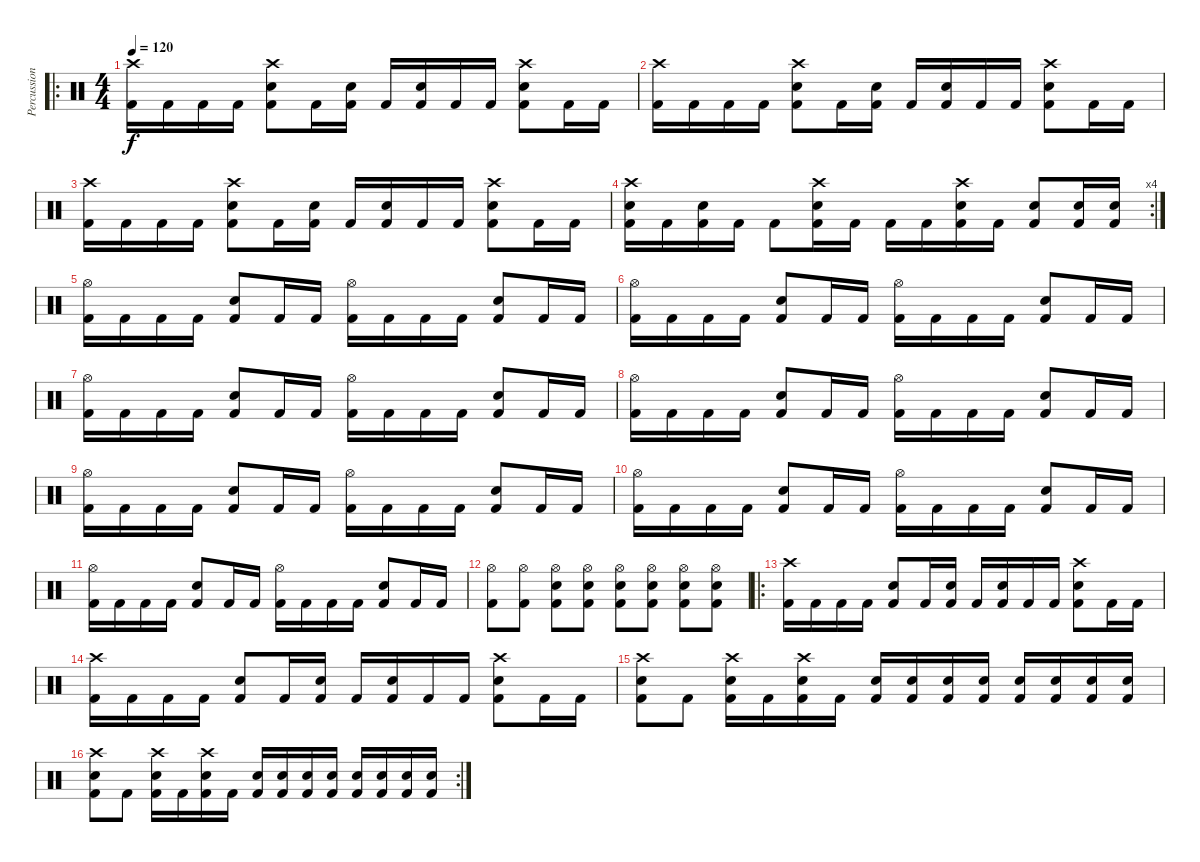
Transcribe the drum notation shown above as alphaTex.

\track ("Percussion - Ryan Vikedal" "Percussion") {instrument percussion}
\staff {score}
\articulation defaults
\ro
\ts (4 4)
\tempo 120
\clef neutral
\ks c
("Crash high (hit)" "Kick (hit) 2").16{dy f} "Kick (hit) 2".16 "Kick (hit) 2".16 "Kick (hit) 2".16 ("Crash high (hit)" "Snare (hit) 2" "Kick (hit) 2").8 "Kick (hit) 2".16 ("Snare (hit) 2" "Kick (hit) 2").16 "Kick (hit) 2".16 ("Snare (hit) 2" "Kick (hit) 2").16 "Kick (hit) 2".16 "Kick (hit) 2".16 ("Crash high (hit)" "Snare (hit) 2" "Kick (hit) 2").8 "Kick (hit) 2".16 "Kick (hit) 2".16 |
("Crash high (hit)" "Kick (hit) 2").16 "Kick (hit) 2".16 "Kick (hit) 2".16 "Kick (hit) 2".16 ("Crash high (hit)" "Snare (hit) 2" "Kick (hit) 2").8 "Kick (hit) 2".16 ("Snare (hit) 2" "Kick (hit) 2").16 "Kick (hit) 2".16 ("Snare (hit) 2" "Kick (hit) 2").16 "Kick (hit) 2".16 "Kick (hit) 2".16 ("Crash high (hit)" "Snare (hit) 2" "Kick (hit) 2").8 "Kick (hit) 2".16 "Kick (hit) 2".16 |
("Crash high (hit)" "Kick (hit) 2").16 "Kick (hit) 2".16 "Kick (hit) 2".16 "Kick (hit) 2".16 ("Crash high (hit)" "Snare (hit) 2" "Kick (hit) 2").8 "Kick (hit) 2".16 ("Snare (hit) 2" "Kick (hit) 2").16 "Kick (hit) 2".16 ("Snare (hit) 2" "Kick (hit) 2").16 "Kick (hit) 2".16 "Kick (hit) 2".16 ("Crash high (hit)" "Snare (hit) 2" "Kick (hit) 2").8 "Kick (hit) 2".16 "Kick (hit) 2".16 |
\rc 4
("Crash high (hit)" "Snare (hit) 2" "Kick (hit) 2").16 "Kick (hit) 2".16 ("Snare (hit) 2" "Kick (hit) 2").16 "Kick (hit) 2".16 "Kick (hit) 2".8 ("Crash high (hit)" "Snare (hit) 2" "Kick (hit) 2").16 "Kick (hit) 2".16 "Kick (hit) 2".16 "Kick (hit) 2".16 ("Crash high (hit)" "Snare (hit) 2" "Kick (hit) 2").16 "Kick (hit) 2".16 ("Snare (hit) 2" "Kick (hit) 2").8 ("Snare (hit) 2" "Kick (hit) 2").16 ("Snare (hit) 2" "Kick (hit) 2").16 |
("Hi-Hat (open)" "Kick (hit) 2").16 "Kick (hit) 2".16 "Kick (hit) 2".16 "Kick (hit) 2".16 ("Snare (hit) 2" "Kick (hit) 2").8 "Kick (hit) 2".16 "Kick (hit) 2".16 ("Hi-Hat (open)" "Kick (hit) 2").16 "Kick (hit) 2".16 "Kick (hit) 2".16 "Kick (hit) 2".16 ("Snare (hit) 2" "Kick (hit) 2").8 "Kick (hit) 2".16 "Kick (hit) 2".16 |
("Hi-Hat (open)" "Kick (hit) 2").16 "Kick (hit) 2".16 "Kick (hit) 2".16 "Kick (hit) 2".16 ("Snare (hit) 2" "Kick (hit) 2").8 "Kick (hit) 2".16 "Kick (hit) 2".16 ("Hi-Hat (open)" "Kick (hit) 2").16 "Kick (hit) 2".16 "Kick (hit) 2".16 "Kick (hit) 2".16 ("Snare (hit) 2" "Kick (hit) 2").8 "Kick (hit) 2".16 "Kick (hit) 2".16 |
("Hi-Hat (open)" "Kick (hit) 2").16 "Kick (hit) 2".16 "Kick (hit) 2".16 "Kick (hit) 2".16 ("Snare (hit) 2" "Kick (hit) 2").8 "Kick (hit) 2".16 "Kick (hit) 2".16 ("Hi-Hat (open)" "Kick (hit) 2").16 "Kick (hit) 2".16 "Kick (hit) 2".16 "Kick (hit) 2".16 ("Snare (hit) 2" "Kick (hit) 2").8 "Kick (hit) 2".16 "Kick (hit) 2".16 |
("Hi-Hat (open)" "Kick (hit) 2").16 "Kick (hit) 2".16 "Kick (hit) 2".16 "Kick (hit) 2".16 ("Snare (hit) 2" "Kick (hit) 2").8 "Kick (hit) 2".16 "Kick (hit) 2".16 ("Hi-Hat (open)" "Kick (hit) 2").16 "Kick (hit) 2".16 "Kick (hit) 2".16 "Kick (hit) 2".16 ("Snare (hit) 2" "Kick (hit) 2").8 "Kick (hit) 2".16 "Kick (hit) 2".16 |
("Hi-Hat (open)" "Kick (hit) 2").16 "Kick (hit) 2".16 "Kick (hit) 2".16 "Kick (hit) 2".16 ("Snare (hit) 2" "Kick (hit) 2").8 "Kick (hit) 2".16 "Kick (hit) 2".16 ("Hi-Hat (open)" "Kick (hit) 2").16 "Kick (hit) 2".16 "Kick (hit) 2".16 "Kick (hit) 2".16 ("Snare (hit) 2" "Kick (hit) 2").8 "Kick (hit) 2".16 "Kick (hit) 2".16 |
("Hi-Hat (open)" "Kick (hit) 2").16 "Kick (hit) 2".16 "Kick (hit) 2".16 "Kick (hit) 2".16 ("Snare (hit) 2" "Kick (hit) 2").8 "Kick (hit) 2".16 "Kick (hit) 2".16 ("Hi-Hat (open)" "Kick (hit) 2").16 "Kick (hit) 2".16 "Kick (hit) 2".16 "Kick (hit) 2".16 ("Snare (hit) 2" "Kick (hit) 2").8 "Kick (hit) 2".16 "Kick (hit) 2".16 |
("Hi-Hat (open)" "Kick (hit) 2").16 "Kick (hit) 2".16 "Kick (hit) 2".16 "Kick (hit) 2".16 ("Snare (hit) 2" "Kick (hit) 2").8 "Kick (hit) 2".16 "Kick (hit) 2".16 ("Hi-Hat (open)" "Kick (hit) 2").16 "Kick (hit) 2".16 "Kick (hit) 2".16 "Kick (hit) 2".16 ("Snare (hit) 2" "Kick (hit) 2").8 "Kick (hit) 2".16 "Kick (hit) 2".16 |
("Hi-Hat (open)" "Kick (hit) 2").8 ("Hi-Hat (open)" "Kick (hit) 2").8 ("Hi-Hat (open)" "Snare (hit) 2" "Kick (hit) 2").8 ("Hi-Hat (open)" "Snare (hit) 2" "Kick (hit) 2").8 ("Hi-Hat (open)" "Snare (hit) 2" "Kick (hit) 2").8 ("Hi-Hat (open)" "Snare (hit) 2" "Kick (hit) 2").8 ("Hi-Hat (open)" "Snare (hit) 2" "Kick (hit) 2").8 ("Hi-Hat (open)" "Snare (hit) 2" "Kick (hit) 2").8 |
\ro
("Crash high (hit)" "Kick (hit) 2").16 "Kick (hit) 2".16 "Kick (hit) 2".16 "Kick (hit) 2".16 ("Snare (hit) 2" "Kick (hit) 2").8 "Kick (hit) 2".16 ("Snare (hit) 2" "Kick (hit) 2").16 "Kick (hit) 2".16 ("Snare (hit) 2" "Kick (hit) 2").16 "Kick (hit) 2".16 "Kick (hit) 2".16 ("Crash high (hit)" "Snare (hit) 2" "Kick (hit) 2").8 "Kick (hit) 2".16 "Kick (hit) 2".16 |
("Crash high (hit)" "Kick (hit) 2").16 "Kick (hit) 2".16 "Kick (hit) 2".16 "Kick (hit) 2".16 ("Snare (hit) 2" "Kick (hit) 2").8 "Kick (hit) 2".16 ("Snare (hit) 2" "Kick (hit) 2").16 "Kick (hit) 2".16 ("Snare (hit) 2" "Kick (hit) 2").16 "Kick (hit) 2".16 "Kick (hit) 2".16 ("Crash high (hit)" "Snare (hit) 2" "Kick (hit) 2").8 "Kick (hit) 2".16 "Kick (hit) 2".16 |
("Crash high (hit)" "Snare (hit) 2" "Kick (hit) 2").8 "Kick (hit) 2".8 ("Crash high (hit)" "Snare (hit) 2" "Kick (hit) 2").16 "Kick (hit) 2".16 ("Crash high (hit)" "Snare (hit) 2" "Kick (hit) 2").16 "Kick (hit) 2".16 ("Snare (hit) 2" "Kick (hit) 2").16 ("Snare (hit) 2" "Kick (hit) 2").16 ("Snare (hit) 2" "Kick (hit) 2").16 ("Snare (hit) 2" "Kick (hit) 2").16 ("Snare (hit) 2" "Kick (hit) 2").16 ("Snare (hit) 2" "Kick (hit) 2").16 ("Snare (hit) 2" "Kick (hit) 2").16 ("Snare (hit) 2" "Kick (hit) 2").16 |
\rc 2
("Crash high (hit)" "Snare (hit) 2" "Kick (hit) 2").8 "Kick (hit) 2".8 ("Crash high (hit)" "Snare (hit) 2" "Kick (hit) 2").16 "Kick (hit) 2".16 ("Crash high (hit)" "Snare (hit) 2" "Kick (hit) 2").16 "Kick (hit) 2".16 ("Snare (hit) 2" "Kick (hit) 2").16 ("Snare (hit) 2" "Kick (hit) 2").16 ("Snare (hit) 2" "Kick (hit) 2").16 ("Snare (hit) 2" "Kick (hit) 2").16 ("Snare (hit) 2" "Kick (hit) 2").16 ("Snare (hit) 2" "Kick (hit) 2").16 ("Snare (hit) 2" "Kick (hit) 2").16 ("Snare (hit) 2" "Kick (hit) 2").16
